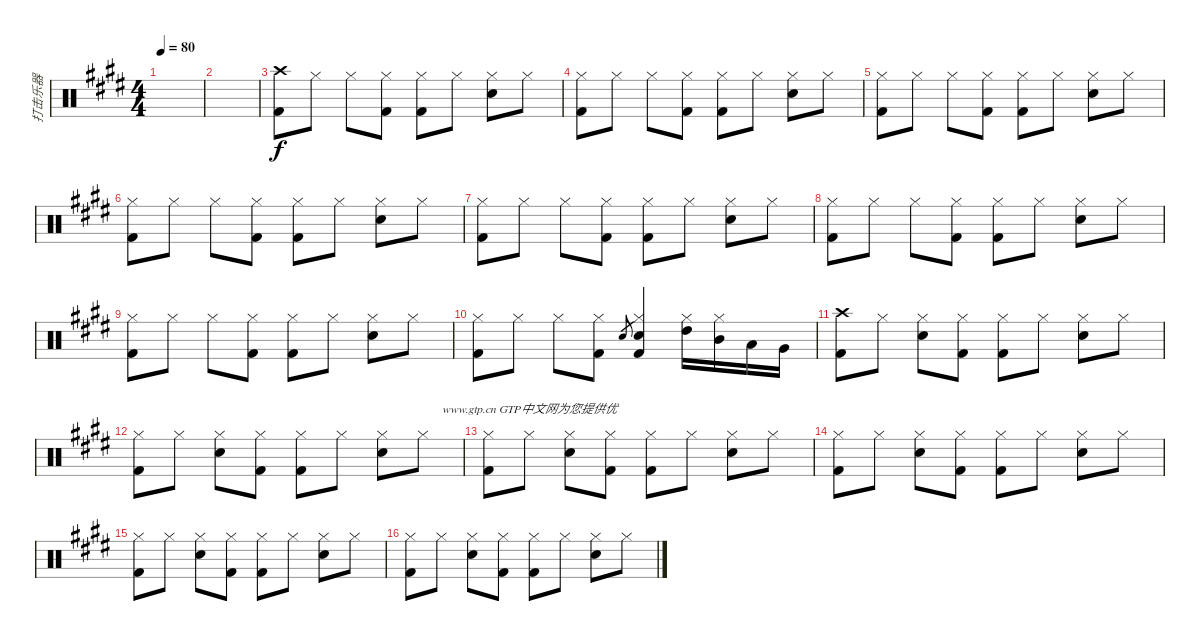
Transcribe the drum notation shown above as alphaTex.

\track ("打击乐器" "打击乐器") {instrument percussion}
\staff {score}
\articulation defaults
\ts (4 4)
\tempo 80
\clef neutral
\ks c#minor
|
|
("Crash high (hit)" "Kick (hit) 2").8 "Hi-Hat (closed)".8 "Hi-Hat (closed)".8 ("Hi-Hat (closed)" "Kick (hit) 2").8 ("Hi-Hat (closed)" "Kick (hit) 2").8 "Hi-Hat (closed)".8 ("Hi-Hat (closed)" "Snare (hit) 2").8 "Hi-Hat (closed)".8 |
("Hi-Hat (closed)" "Kick (hit) 2").8 "Hi-Hat (closed)".8 "Hi-Hat (closed)".8 ("Hi-Hat (closed)" "Kick (hit) 2").8 ("Hi-Hat (closed)" "Kick (hit) 2").8 "Hi-Hat (closed)".8 ("Hi-Hat (closed)" "Snare (hit) 2").8 "Hi-Hat (closed)".8 |
("Hi-Hat (closed)" "Kick (hit) 2").8 "Hi-Hat (closed)".8 "Hi-Hat (closed)".8 ("Hi-Hat (closed)" "Kick (hit) 2").8 ("Hi-Hat (closed)" "Kick (hit) 2").8 "Hi-Hat (closed)".8 ("Hi-Hat (closed)" "Snare (hit) 2").8 "Hi-Hat (closed)".8 |
("Hi-Hat (closed)" "Kick (hit) 2").8 "Hi-Hat (closed)".8 "Hi-Hat (closed)".8 ("Hi-Hat (closed)" "Kick (hit) 2").8 ("Hi-Hat (closed)" "Kick (hit) 2").8 "Hi-Hat (closed)".8 ("Hi-Hat (closed)" "Snare (hit) 2").8 "Hi-Hat (closed)".8 |
("Hi-Hat (closed)" "Kick (hit) 2").8 "Hi-Hat (closed)".8 "Hi-Hat (closed)".8 ("Hi-Hat (closed)" "Kick (hit) 2").8 ("Hi-Hat (closed)" "Kick (hit) 2").8 "Hi-Hat (closed)".8 ("Hi-Hat (closed)" "Snare (hit) 2").8 "Hi-Hat (closed)".8 |
("Hi-Hat (closed)" "Kick (hit) 2").8 "Hi-Hat (closed)".8 "Hi-Hat (closed)".8 ("Hi-Hat (closed)" "Kick (hit) 2").8 ("Hi-Hat (closed)" "Kick (hit) 2").8 "Hi-Hat (closed)".8 ("Hi-Hat (closed)" "Snare (hit) 2").8 "Hi-Hat (closed)".8 |
("Hi-Hat (closed)" "Kick (hit) 2").8 "Hi-Hat (closed)".8 "Hi-Hat (closed)".8 ("Hi-Hat (closed)" "Kick (hit) 2").8 ("Hi-Hat (closed)" "Kick (hit) 2").8 "Hi-Hat (closed)".8 ("Hi-Hat (closed)" "Snare (hit) 2").8 "Hi-Hat (closed)".8 |
("Hi-Hat (closed)" "Kick (hit) 2").8 "Hi-Hat (closed)".8 "Hi-Hat (closed)".8 ("Hi-Hat (closed)" "Kick (hit) 2").8 "Snare (hit) 2".8{gr} ("Hi-Hat (closed)" "Snare (hit) 2" "Kick (hit) 2").4 ("Hi-Hat (closed)" "High Tom (hit)").16 ("Hi-Hat (closed)" "Mid Tom (hit)").16 "Low Tom (hit)".16 "Very Low Tom (hit)".16 |
("Crash high (hit)" "Kick (hit) 2").8 "Hi-Hat (closed)".8 ("Hi-Hat (closed)" "Snare (hit) 2").8 ("Hi-Hat (closed)" "Kick (hit) 2").8 ("Hi-Hat (closed)" "Kick (hit) 2").8 "Hi-Hat (closed)".8 ("Hi-Hat (closed)" "Snare (hit) 2").8 "Hi-Hat (closed)".8 |
("Hi-Hat (closed)" "Kick (hit) 2").8 "Hi-Hat (closed)".8 ("Hi-Hat (closed)" "Snare (hit) 2").8 ("Hi-Hat (closed)" "Kick (hit) 2").8 ("Hi-Hat (closed)" "Kick (hit) 2").8 "Hi-Hat (closed)".8 ("Hi-Hat (closed)" "Snare (hit) 2").8{txt "                    www.gtp.cn GTP中文网为您提供优"} "Hi-Hat (closed)".8 |
("Hi-Hat (closed)" "Kick (hit) 2").8 "Hi-Hat (closed)".8 ("Hi-Hat (closed)" "Snare (hit) 2").8 ("Hi-Hat (closed)" "Kick (hit) 2").8 ("Hi-Hat (closed)" "Kick (hit) 2").8 "Hi-Hat (closed)".8 ("Hi-Hat (closed)" "Snare (hit) 2").8 "Hi-Hat (closed)".8 |
("Hi-Hat (closed)" "Kick (hit) 2").8 "Hi-Hat (closed)".8 ("Hi-Hat (closed)" "Snare (hit) 2").8 ("Hi-Hat (closed)" "Kick (hit) 2").8 ("Hi-Hat (closed)" "Kick (hit) 2").8 "Hi-Hat (closed)".8 ("Hi-Hat (closed)" "Snare (hit) 2").8 "Hi-Hat (closed)".8 |
("Hi-Hat (closed)" "Kick (hit) 2").8 "Hi-Hat (closed)".8 ("Hi-Hat (closed)" "Snare (hit) 2").8 ("Hi-Hat (closed)" "Kick (hit) 2").8 ("Hi-Hat (closed)" "Kick (hit) 2").8 "Hi-Hat (closed)".8 ("Hi-Hat (closed)" "Snare (hit) 2").8 "Hi-Hat (closed)".8 |
("Hi-Hat (closed)" "Kick (hit) 2").8 "Hi-Hat (closed)".8 ("Hi-Hat (closed)" "Snare (hit) 2").8 ("Hi-Hat (closed)" "Kick (hit) 2").8 ("Hi-Hat (closed)" "Kick (hit) 2").8 "Hi-Hat (closed)".8 ("Hi-Hat (closed)" "Snare (hit) 2").8 "Hi-Hat (closed)".8
